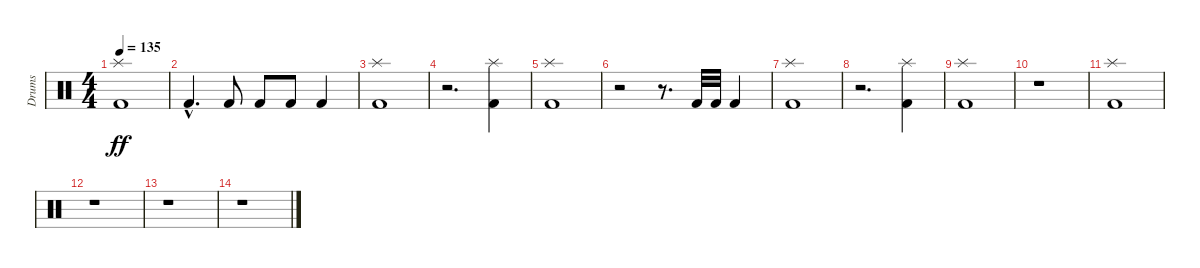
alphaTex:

\track ("Drums" "Drums") {instrument percussion}
\staff {score}
\articulation defaults
\ts (4 4)
\tempo 135
\clef neutral
\ks c
("Kick (hit) 2" "Splash (hit)").1{dy ff} |
"Kick (hit) 2"{hac}.4{d} "Kick (hit) 2".8 "Kick (hit) 2".8 "Kick (hit) 2".8 "Kick (hit) 2".4 |
("Kick (hit) 2" "Splash (hit)").1 |
r.2{d} ("Kick (hit) 2" "Splash (hit)").4 |
("Kick (hit) 2" "Splash (hit)").1 |
r.2 r.8{d} "Kick (hit) 2".32 "Kick (hit) 2".32 "Kick (hit) 2".4 |
("Kick (hit) 2" "Splash (hit)").1 |
r.2{d} ("Kick (hit) 2" "Splash (hit)").4 |
("Kick (hit) 2" "Splash (hit)").1 |
r.1 |
("Kick (hit) 2" "Splash (hit)").1 |
r.1 |
r.1 |
r.1
